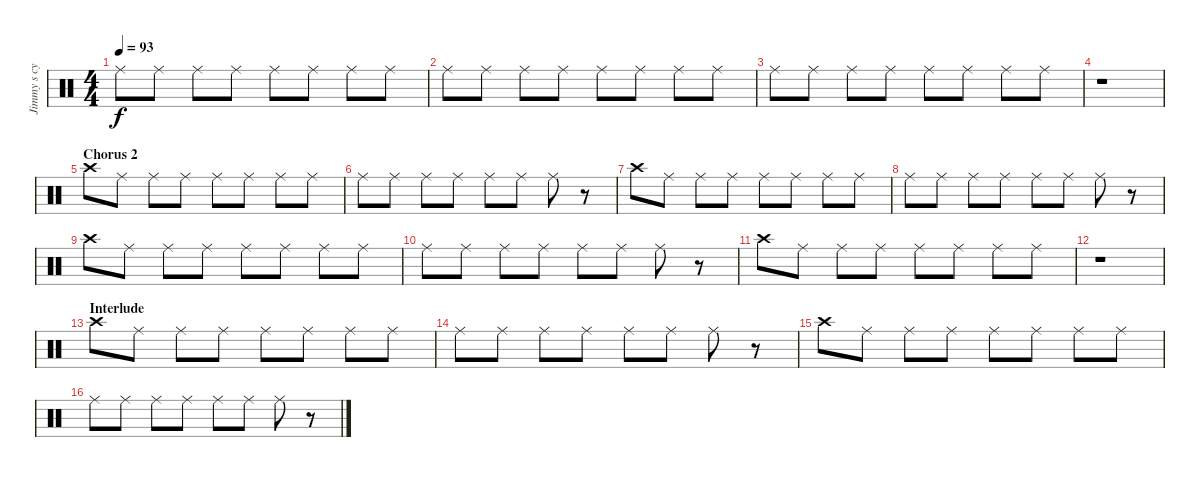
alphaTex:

\track ("Jimmy s cymbals" "Jimmy s cy") {instrument percussion}
\staff {score}
\articulation defaults
\ts (4 4)
\tempo 93
\clef neutral
\ks c "Ride (middle)".8{dy f} "Ride (middle)".8 "Ride (middle)".8 "Ride (middle)".8 "Ride (middle)".8 "Ride (middle)".8 "Ride (middle)".8 "Ride (middle)".8
|
"Ride (middle)".8 "Ride (middle)".8 "Ride (middle)".8 "Ride (middle)".8 "Ride (middle)".8 "Ride (middle)".8 "Ride (middle)".8 "Ride (middle)".8 |
"Ride (middle)".8 "Ride (middle)".8 "Ride (middle)".8 "Ride (middle)".8 "Ride (middle)".8 "Ride (middle)".8 "Ride (middle)".8 "Ride (middle)".8 |
r.1 |
\section ("" "Chorus 2")
"Crash high (hit)".8 "Ride (middle)".8 "Ride (middle)".8 "Ride (middle)".8 "Ride (middle)".8 "Ride (middle)".8 "Ride (middle)".8 "Ride (middle)".8 |
"Ride (middle)".8 "Ride (middle)".8 "Ride (middle)".8 "Ride (middle)".8 "Ride (middle)".8 "Ride (middle)".8 "Ride (middle)".8 r.8 |
"Crash high (hit)".8 "Ride (middle)".8 "Ride (middle)".8 "Ride (middle)".8 "Ride (middle)".8 "Ride (middle)".8 "Ride (middle)".8 "Ride (middle)".8 |
"Ride (middle)".8 "Ride (middle)".8 "Ride (middle)".8 "Ride (middle)".8 "Ride (middle)".8 "Ride (middle)".8 "Ride (middle)".8 r.8 |
"Crash high (hit)".8 "Ride (middle)".8 "Ride (middle)".8 "Ride (middle)".8 "Ride (middle)".8 "Ride (middle)".8 "Ride (middle)".8 "Ride (middle)".8 |
"Ride (middle)".8 "Ride (middle)".8 "Ride (middle)".8 "Ride (middle)".8 "Ride (middle)".8 "Ride (middle)".8 "Ride (middle)".8 r.8 |
"Crash high (hit)".8 "Ride (middle)".8 "Ride (middle)".8 "Ride (middle)".8 "Ride (middle)".8 "Ride (middle)".8 "Ride (middle)".8 "Ride (middle)".8 |
r.1 |
\section ("" "Interlude")
"Crash high (hit)".8 "Ride (middle)".8 "Ride (middle)".8 "Ride (middle)".8 "Ride (middle)".8 "Ride (middle)".8 "Ride (middle)".8 "Ride (middle)".8 |
"Ride (middle)".8 "Ride (middle)".8 "Ride (middle)".8 "Ride (middle)".8 "Ride (middle)".8 "Ride (middle)".8 "Ride (middle)".8 r.8 |
"Crash high (hit)".8 "Ride (middle)".8 "Ride (middle)".8 "Ride (middle)".8 "Ride (middle)".8 "Ride (middle)".8 "Ride (middle)".8 "Ride (middle)".8 |
"Ride (middle)".8 "Ride (middle)".8 "Ride (middle)".8 "Ride (middle)".8 "Ride (middle)".8 "Ride (middle)".8 "Ride (middle)".8 r.8
